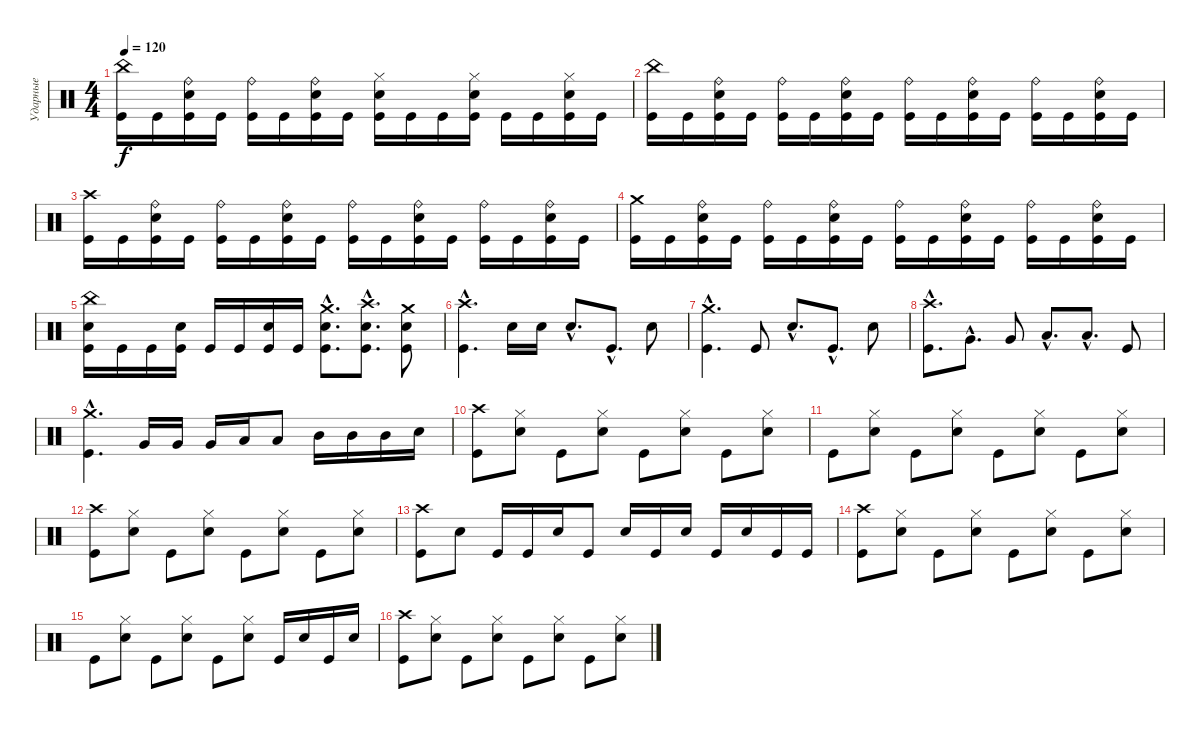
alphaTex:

\track ("Ударные" "Ударные") {instrument percussion}
\staff {score}
\articulation defaults
\ts (4 4)
\tempo 120
\clef neutral
\ks c
("China (hit)" "Kick (hit)").16{dy f} "Kick (hit)".16 ("Ride (bell)" "Electric Snare (hit)" "Kick (hit)").16 "Kick (hit)".16 ("Ride (bell)" "Kick (hit)").16 "Kick (hit)".16 ("Ride (bell)" "Electric Snare (hit)" "Kick (hit)").16 "Kick (hit)".16 ("Hi-Hat (closed)" "Electric Snare (hit)" "Kick (hit)").16 "Kick (hit)".16 "Kick (hit)".16 ("Hi-Hat (closed)" "Electric Snare (hit)" "Kick (hit)").16 "Kick (hit)".16 "Kick (hit)".16 ("Hi-Hat (closed)" "Electric Snare (hit)" "Kick (hit)").16 "Kick (hit)".16 |
("China (hit)" "Kick (hit)").16 "Kick (hit)".16 ("Ride (bell)" "Electric Snare (hit)" "Kick (hit)").16 "Kick (hit)".16 ("Ride (bell)" "Kick (hit)").16 "Kick (hit)".16 ("Ride (bell)" "Electric Snare (hit)" "Kick (hit)").16 "Kick (hit)".16 ("Ride (bell)" "Kick (hit)").16 "Kick (hit)".16 ("Ride (bell)" "Electric Snare (hit)" "Kick (hit)").16 "Kick (hit)".16 ("Ride (bell)" "Kick (hit)").16 "Kick (hit)".16 ("Ride (bell)" "Electric Snare (hit)" "Kick (hit)").16 "Kick (hit)".16 |
("Crash high (hit)" "Kick (hit)").16 "Kick (hit)".16 ("Ride (bell)" "Electric Snare (hit)" "Kick (hit)").16 "Kick (hit)".16 ("Ride (bell)" "Kick (hit)").16 "Kick (hit)".16 ("Ride (bell)" "Electric Snare (hit)" "Kick (hit)").16 "Kick (hit)".16 ("Ride (bell)" "Kick (hit)").16 "Kick (hit)".16 ("Ride (bell)" "Electric Snare (hit)" "Kick (hit)").16 "Kick (hit)".16 ("Ride (bell)" "Kick (hit)").16 "Kick (hit)".16 ("Ride (bell)" "Electric Snare (hit)" "Kick (hit)").16 "Kick (hit)".16 |
("Crash medium (hit)" "Kick (hit)").16 "Kick (hit)".16 ("Ride (bell)" "Electric Snare (hit)" "Kick (hit)").16 "Kick (hit)".16 ("Ride (bell)" "Kick (hit)").16 "Kick (hit)".16 ("Ride (bell)" "Electric Snare (hit)" "Kick (hit)").16 "Kick (hit)".16 ("Ride (bell)" "Kick (hit)").16 "Kick (hit)".16 ("Ride (bell)" "Electric Snare (hit)" "Kick (hit)").16 "Kick (hit)".16 ("Ride (bell)" "Kick (hit)").16 "Kick (hit)".16 ("Ride (bell)" "Electric Snare (hit)" "Kick (hit)").16 "Kick (hit)".16 |
("China (hit)" "Electric Snare (hit)" "Kick (hit)").16 "Kick (hit)".16 "Kick (hit)".16 ("Electric Snare (hit)" "Kick (hit)").16 "Kick (hit)".16 "Kick (hit)".16 ("Electric Snare (hit)" "Kick (hit)").16 "Kick (hit)".16 ("Crash medium (hit)"{hac} "Electric Snare (hit)"{hac} "Kick (hit)"{hac}).8{d} ("Crash high (hit)"{hac} "Electric Snare (hit)"{hac} "Kick (hit)"{hac}).8{d} ("Crash medium (hit)" "Electric Snare (hit)" "Kick (hit)").8 |
("Crash high (hit)"{hac} "Kick (hit)"{hac}).4{d} "Electric Snare (hit)".16 "Electric Snare (hit)".16 "Electric Snare (hit)"{hac}.8{d} "Kick (hit)"{hac}.8{d} "Electric Snare (hit)".8 |
("Crash medium (hit)"{hac} "Kick (hit)"{hac}).4{d} "Kick (hit)".8 "Electric Snare (hit)"{hac}.8{d} "Kick (hit)"{hac}.8{d} "Electric Snare (hit)".8 |
("Crash high (hit)"{hac} "Kick (hit)"{hac}).8{d} "Very Low Tom (hit)"{hac}.8{d} "Very Low Tom (hit)".8 "Low Tom (hit)"{hac}.8{d} "Low Tom (hit)"{hac}.8{d} "Kick (hit)".8 |
("Crash medium (hit)"{hac} "Kick (hit)"{hac}).4{d} "Very Low Tom (hit)".16 "Very Low Tom (hit)".16 "Very Low Tom (hit)".16 "Low Tom (hit)".16 "Low Tom (hit)".8 "Mid Tom (hit)".16 "Mid Tom (hit)".16 "Mid Tom (hit)".16 "Electric Snare (hit)".16 |
("Crash high (hit)" "Kick (hit)").8 ("Hi-Hat (closed)" "Electric Snare (hit)").8 "Kick (hit)".8 ("Hi-Hat (closed)" "Electric Snare (hit)").8 "Kick (hit)".8 ("Hi-Hat (closed)" "Electric Snare (hit)").8 "Kick (hit)".8 ("Hi-Hat (closed)" "Electric Snare (hit)").8 |
"Kick (hit)".8 ("Hi-Hat (closed)" "Electric Snare (hit)").8 "Kick (hit)".8 ("Hi-Hat (closed)" "Electric Snare (hit)").8 "Kick (hit)".8 ("Hi-Hat (closed)" "Electric Snare (hit)").8 "Kick (hit)".8 ("Hi-Hat (closed)" "Electric Snare (hit)").8 |
("Crash high (hit)" "Kick (hit)").8 ("Hi-Hat (closed)" "Electric Snare (hit)").8 "Kick (hit)".8 ("Hi-Hat (closed)" "Electric Snare (hit)").8 "Kick (hit)".8 ("Hi-Hat (closed)" "Electric Snare (hit)").8 "Kick (hit)".8 ("Hi-Hat (closed)" "Electric Snare (hit)").8 |
("Crash high (hit)" "Kick (hit)").8 "Electric Snare (hit)".8 "Kick (hit)".16 "Kick (hit)".16 "Electric Snare (hit)".16 "Kick (hit)".8 "Electric Snare (hit)".16 "Kick (hit)".16 "Electric Snare (hit)".16 "Kick (hit)".16 "Electric Snare (hit)".16 "Kick (hit)".16 "Kick (hit)".16 |
("Crash high (hit)" "Kick (hit)").8 ("Hi-Hat (closed)" "Electric Snare (hit)").8 "Kick (hit)".8 ("Hi-Hat (closed)" "Electric Snare (hit)").8 "Kick (hit)".8 ("Hi-Hat (closed)" "Electric Snare (hit)").8 "Kick (hit)".8 ("Hi-Hat (closed)" "Electric Snare (hit)").8 |
"Kick (hit)".8 ("Hi-Hat (closed)" "Electric Snare (hit)").8 "Kick (hit)".8 ("Hi-Hat (closed)" "Electric Snare (hit)").8 "Kick (hit)".8 ("Hi-Hat (closed)" "Electric Snare (hit)").8 "Kick (hit)".16 "Electric Snare (hit)".16 "Kick (hit)".16 "Electric Snare (hit)".16 |
("Crash high (hit)" "Kick (hit)").8 ("Hi-Hat (closed)" "Electric Snare (hit)").8 "Kick (hit)".8 ("Hi-Hat (closed)" "Electric Snare (hit)").8 "Kick (hit)".8 ("Hi-Hat (closed)" "Electric Snare (hit)").8 "Kick (hit)".8 ("Hi-Hat (closed)" "Electric Snare (hit)").8
